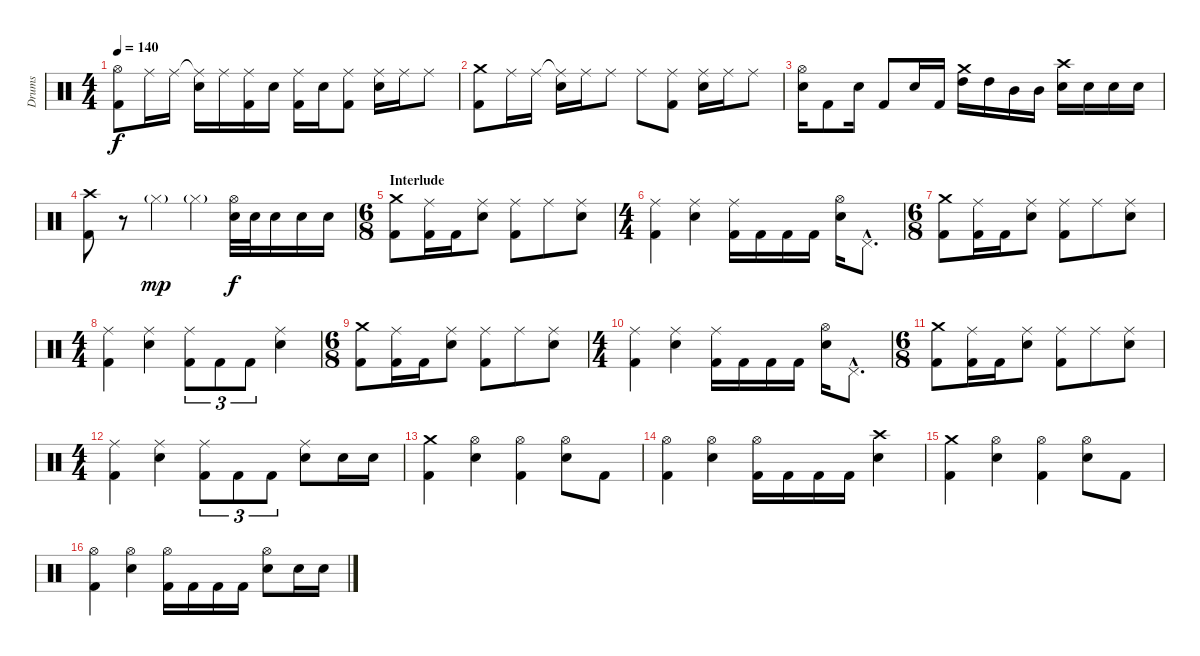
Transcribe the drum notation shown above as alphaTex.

\track ("Drums" "Drums") {instrument percussion}
\staff {score}
\articulation defaults
\ts (4 4)
\tempo 140
\clef neutral
\ks c
("Hi-Hat (open)" "Kick (hit) 2").8{dy f} "Ride (middle)".16 "Ride (middle)".16 ("Ride (middle)"{t} "Snare (hit) 2").16 "Ride (middle)".16 ("Ride (middle)" "Kick (hit) 2").16 "Snare (hit) 2".16 ("Ride (middle)" "Kick (hit) 2").16 "Snare (hit) 2".16 ("Ride (middle)" "Kick (hit) 2").8 ("Ride (middle)" "Snare (hit) 2").16 "Ride (middle)".16 "Ride (middle)".8 |
("Crash medium (hit)" "Kick (hit) 2").8 "Ride (middle)".16 "Ride (middle)".16 ("Ride (middle)"{t} "Snare (hit) 2").16 "Ride (middle)".16 "Ride (middle)".8 "Ride (middle)".8 ("Ride (middle)" "Kick (hit) 2").8 ("Ride (middle)" "Snare (hit) 2").16 "Ride (middle)".16 "Ride (middle)".8 |
("Hi-Hat (open)" "Snare (hit) 2").16 "Kick (hit) 2".8 "Snare (hit) 2".16 "Kick (hit) 2".8 "Snare (hit) 2".16 "Kick (hit) 2".16 ("Crash medium (hit)" "High Tom (hit)").16 "High Tom (hit)".16 "Mid Tom (hit)".16 "Mid Tom (hit)".16 ("Crash high (hit)" "Snare (hit) 2").16 "Snare (hit) 2".16 "Snare (hit) 2".16 "Snare (hit) 2".16 |
("Crash high (hit)" "Kick (hit) 2").8 r.8 "Hi-Hat (closed)"{g}.4{dy mp} "Hi-Hat (closed)"{g}.4 ("Hi-Hat (open)" "Snare (hit) 2").32{dy f} "Snare (hit) 2".32 "Snare (hit) 2".16 "Snare (hit) 2".16 "Snare (hit) 2".16 |
\ts (6 8)
\section ("" "Interlude")
("Crash medium (hit)" "Kick (hit) 2").8 ("Ride (middle)" "Kick (hit) 2").16 "Kick (hit) 2".16 ("Ride (middle)" "Snare (hit) 2").8 ("Ride (middle)" "Kick (hit) 2").8 "Ride (middle)".8 ("Ride (middle)" "Snare (hit) 2").8 |
\ts (4 4)
("Ride (middle)" "Kick (hit) 2").4 ("Ride (middle)" "Snare (hit) 2").4 ("Ride (middle)" "Kick (hit) 2").16 "Kick (hit) 2".16 "Kick (hit) 2".16 "Kick (hit) 2".16 ("Hi-Hat (open)" "Snare (hit) 2").16 "Pedal Hi-Hat (hit)"{hac}.8{d} |
\ts (6 8)
("Crash medium (hit)" "Kick (hit) 2").8 ("Ride (middle)" "Kick (hit) 2").16 "Kick (hit) 2".16 ("Ride (middle)" "Snare (hit) 2").8 ("Ride (middle)" "Kick (hit) 2").8 "Ride (middle)".8 ("Ride (middle)" "Snare (hit) 2").8 |
\ts (4 4)
("Ride (middle)" "Kick (hit) 2").4 ("Ride (middle)" "Snare (hit) 2").4 ("Ride (middle)" "Kick (hit) 2").8{tu (3 2)} "Kick (hit) 2".8{tu (3 2)} "Kick (hit) 2".8{tu (3 2)} ("Ride (middle)" "Snare (hit) 2").4 |
\ts (6 8)
("Crash medium (hit)" "Kick (hit) 2").8 ("Ride (middle)" "Kick (hit) 2").16 "Kick (hit) 2".16 ("Ride (middle)" "Snare (hit) 2").8 ("Ride (middle)" "Kick (hit) 2").8 "Ride (middle)".8 ("Ride (middle)" "Snare (hit) 2").8 |
\ts (4 4)
("Ride (middle)" "Kick (hit) 2").4 ("Ride (middle)" "Snare (hit) 2").4 ("Ride (middle)" "Kick (hit) 2").16 "Kick (hit) 2".16 "Kick (hit) 2".16 "Kick (hit) 2".16 ("Hi-Hat (open)" "Snare (hit) 2").16 "Pedal Hi-Hat (hit)"{hac}.8{d} |
\ts (6 8)
("Crash medium (hit)" "Kick (hit) 2").8 ("Ride (middle)" "Kick (hit) 2").16 "Kick (hit) 2".16 ("Ride (middle)" "Snare (hit) 2").8 ("Ride (middle)" "Kick (hit) 2").8 "Ride (middle)".8 ("Ride (middle)" "Snare (hit) 2").8 |
\ts (4 4)
("Ride (middle)" "Kick (hit) 2").4 ("Ride (middle)" "Snare (hit) 2").4 ("Ride (middle)" "Kick (hit) 2").8{tu (3 2)} "Kick (hit) 2".8{tu (3 2)} "Kick (hit) 2".8{tu (3 2)} ("Ride (middle)" "Snare (hit) 2").8 "Snare (hit) 2".16 "Snare (hit) 2".16 |
("Crash medium (hit)" "Kick (hit) 2").4 ("Hi-Hat (open)" "Snare (hit) 2").4 ("Hi-Hat (open)" "Kick (hit) 2").4 ("Hi-Hat (open)" "Snare (hit) 2").8 "Kick (hit) 2".8 |
("Hi-Hat (open)" "Kick (hit) 2").4 ("Hi-Hat (open)" "Snare (hit) 2").4 ("Hi-Hat (open)" "Kick (hit) 2").16 "Kick (hit) 2".16 "Kick (hit) 2".16 "Kick (hit) 2".16 ("Crash high (hit)" "Snare (hit) 2").4 |
("Crash medium (hit)" "Kick (hit) 2").4 ("Hi-Hat (open)" "Snare (hit) 2").4 ("Hi-Hat (open)" "Kick (hit) 2").4 ("Hi-Hat (open)" "Snare (hit) 2").8 "Kick (hit) 2".8 |
("Hi-Hat (open)" "Kick (hit) 2").4 ("Hi-Hat (open)" "Snare (hit) 2").4 ("Hi-Hat (open)" "Kick (hit) 2").16 "Kick (hit) 2".16 "Kick (hit) 2".16 "Kick (hit) 2".16 ("Hi-Hat (open)" "Snare (hit) 2").8 "Snare (hit) 2".16 "Snare (hit) 2".16
